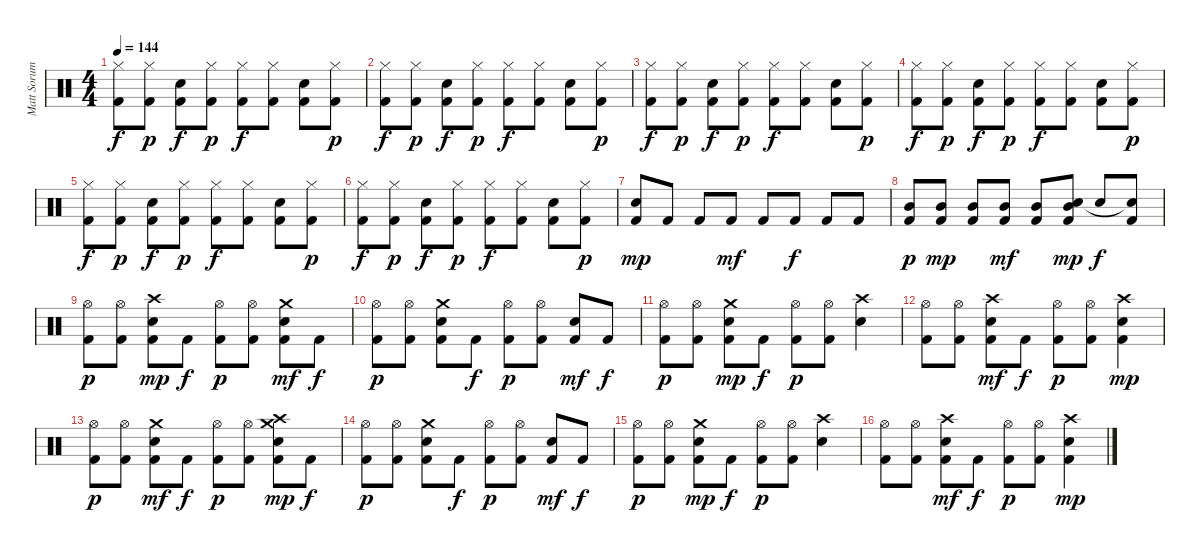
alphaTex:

\track ("Matt Sorum" "Matt Sorum") {instrument percussion}
\staff {score}
\articulation defaults
\ts (4 4)
\tempo 144
\clef neutral
\ks c
("Kick (hit) 2" "Hi-Hat (closed)").8{dy f} ("Kick (hit) 2" "Hi-Hat (closed)").8{dy p} ("Kick (hit) 2" "Snare (hit) 2").8{dy f} ("Kick (hit) 2" "Hi-Hat (closed)").8{dy p} ("Kick (hit) 2" "Hi-Hat (closed)").8{dy f} ("Kick (hit) 2" "Hi-Hat (closed)").8 ("Kick (hit) 2" "Snare (hit) 2").8 ("Kick (hit) 2" "Hi-Hat (closed)").8{dy p} |
("Kick (hit) 2" "Hi-Hat (closed)").8{dy f} ("Kick (hit) 2" "Hi-Hat (closed)").8{dy p} ("Kick (hit) 2" "Snare (hit) 2").8{dy f} ("Kick (hit) 2" "Hi-Hat (closed)").8{dy p} ("Kick (hit) 2" "Hi-Hat (closed)").8{dy f} ("Kick (hit) 2" "Hi-Hat (closed)").8 ("Kick (hit) 2" "Snare (hit) 2").8 ("Kick (hit) 2" "Hi-Hat (closed)").8{dy p} |
("Kick (hit) 2" "Hi-Hat (closed)").8{dy f} ("Kick (hit) 2" "Hi-Hat (closed)").8{dy p} ("Kick (hit) 2" "Snare (hit) 2").8{dy f} ("Kick (hit) 2" "Hi-Hat (closed)").8{dy p} ("Kick (hit) 2" "Hi-Hat (closed)").8{dy f} ("Kick (hit) 2" "Hi-Hat (closed)").8 ("Kick (hit) 2" "Snare (hit) 2").8 ("Kick (hit) 2" "Hi-Hat (closed)").8{dy p} |
("Kick (hit) 2" "Hi-Hat (closed)").8{dy f} ("Kick (hit) 2" "Hi-Hat (closed)").8{dy p} ("Kick (hit) 2" "Snare (hit) 2").8{dy f} ("Kick (hit) 2" "Hi-Hat (closed)").8{dy p} ("Kick (hit) 2" "Hi-Hat (closed)").8{dy f} ("Kick (hit) 2" "Hi-Hat (closed)").8 ("Kick (hit) 2" "Snare (hit) 2").8 ("Kick (hit) 2" "Hi-Hat (closed)").8{dy p} |
("Kick (hit) 2" "Hi-Hat (closed)").8{dy f} ("Kick (hit) 2" "Hi-Hat (closed)").8{dy p} ("Kick (hit) 2" "Snare (hit) 2").8{dy f} ("Kick (hit) 2" "Hi-Hat (closed)").8{dy p} ("Kick (hit) 2" "Hi-Hat (closed)").8{dy f} ("Kick (hit) 2" "Hi-Hat (closed)").8 ("Kick (hit) 2" "Snare (hit) 2").8 ("Kick (hit) 2" "Hi-Hat (closed)").8{dy p} |
("Kick (hit) 2" "Hi-Hat (closed)").8{dy f} ("Kick (hit) 2" "Hi-Hat (closed)").8{dy p} ("Kick (hit) 2" "Snare (hit) 2").8{dy f} ("Kick (hit) 2" "Hi-Hat (closed)").8{dy p} ("Kick (hit) 2" "Hi-Hat (closed)").8{dy f} ("Kick (hit) 2" "Hi-Hat (closed)").8 ("Kick (hit) 2" "Snare (hit) 2").8 ("Kick (hit) 2" "Hi-Hat (closed)").8{dy p} |
("Kick (hit) 2" "Snare (hit) 2").8{dy mp} "Kick (hit) 2".8 "Kick (hit) 2".8 "Kick (hit) 2".8{dy mf} "Kick (hit) 2".8 "Kick (hit) 2".8{dy f} "Kick (hit) 2".8 "Kick (hit) 2".8 |
("Kick (hit) 2" "Mid Tom (hit)").8{dy p} ("Kick (hit) 2" "Mid Tom (hit)").8{dy mp} ("Kick (hit) 2" "Mid Tom (hit)").8 ("Kick (hit) 2" "Mid Tom (hit)").8{dy mf} ("Kick (hit) 2" "Mid Tom (hit)").8 ("Kick (hit) 2" "Snare (hit) 2" "Mid Tom (hit)").8{dy mp} "Snare (hit) 2".8{dy f} ("Kick (hit) 2" "Snare (hit)"{t}).8 |
("Kick (hit) 2" "Hi-Hat (open)").8{dy p} ("Kick (hit) 2" "Hi-Hat (open)").8 ("Kick (hit) 2" "Snare (hit) 2" "Crash high (hit)").8{dy mp} "Kick (hit) 2".8{dy f} ("Kick (hit) 2" "Hi-Hat (open)").8{dy p} ("Kick (hit) 2" "Hi-Hat (open)").8 ("Kick (hit) 2" "Snare (hit) 2" "Crash medium (hit)").8{dy mf} "Kick (hit) 2".8{dy f} |
("Kick (hit) 2" "Hi-Hat (open)").8{dy p} ("Kick (hit) 2" "Hi-Hat (open)").8 ("Kick (hit) 2" "Snare (hit) 2" "Crash medium (hit)").8 "Kick (hit) 2".8{dy f} ("Kick (hit) 2" "Hi-Hat (open)").8{dy p} ("Kick (hit) 2" "Hi-Hat (open)").8 ("Kick (hit) 2" "Snare (hit) 2").8{dy mf} "Kick (hit) 2".8{dy f} |
("Kick (hit) 2" "Hi-Hat (open)").8{dy p} ("Kick (hit) 2" "Hi-Hat (open)").8 ("Kick (hit) 2" "Snare (hit) 2" "Crash medium (hit)").8{dy mp} "Kick (hit) 2".8{dy f} ("Kick (hit) 2" "Hi-Hat (open)").8{dy p} ("Kick (hit) 2" "Hi-Hat (open)").8 ("Snare (hit) 2" "Crash high (hit)").4 |
("Kick (hit) 2" "Hi-Hat (open)").8 ("Kick (hit) 2" "Hi-Hat (open)").8 ("Kick (hit) 2" "Snare (hit) 2" "Crash high (hit)").8{dy mf} "Kick (hit) 2".8{dy f} ("Kick (hit) 2" "Hi-Hat (open)").8{dy p} ("Kick (hit) 2" "Hi-Hat (open)").8 ("Kick (hit) 2" "Snare (hit) 2" "Crash high (hit)").4{dy mp} |
("Kick (hit) 2" "Hi-Hat (open)").8{dy p} ("Kick (hit) 2" "Hi-Hat (open)").8 ("Kick (hit) 2" "Snare (hit) 2" "Crash medium (hit)").8{dy mf} "Kick (hit) 2".8{dy f} ("Kick (hit) 2" "Hi-Hat (open)").8{dy p} ("Kick (hit) 2" "Hi-Hat (open)").8 ("Kick (hit) 2" "Snare (hit) 2" "Crash high (hit)" "Crash medium (hit)").8{dy mp} "Kick (hit) 2".8{dy f} |
("Kick (hit) 2" "Hi-Hat (open)").8{dy p} ("Kick (hit) 2" "Hi-Hat (open)").8 ("Kick (hit) 2" "Snare (hit) 2" "Crash medium (hit)").8 "Kick (hit) 2".8{dy f} ("Kick (hit) 2" "Hi-Hat (open)").8{dy p} ("Kick (hit) 2" "Hi-Hat (open)").8 ("Kick (hit) 2" "Snare (hit) 2").8{dy mf} "Kick (hit) 2".8{dy f} |
("Kick (hit) 2" "Hi-Hat (open)").8{dy p} ("Kick (hit) 2" "Hi-Hat (open)").8 ("Kick (hit) 2" "Snare (hit) 2" "Crash medium (hit)").8{dy mp} "Kick (hit) 2".8{dy f} ("Kick (hit) 2" "Hi-Hat (open)").8{dy p} ("Kick (hit) 2" "Hi-Hat (open)").8 ("Snare (hit) 2" "Crash high (hit)").4 |
("Kick (hit) 2" "Hi-Hat (open)").8 ("Kick (hit) 2" "Hi-Hat (open)").8 ("Kick (hit) 2" "Snare (hit) 2" "Crash high (hit)").8{dy mf} "Kick (hit) 2".8{dy f} ("Kick (hit) 2" "Hi-Hat (open)").8{dy p} ("Kick (hit) 2" "Hi-Hat (open)").8 ("Kick (hit) 2" "Snare (hit) 2" "Crash high (hit)").4{dy mp}
